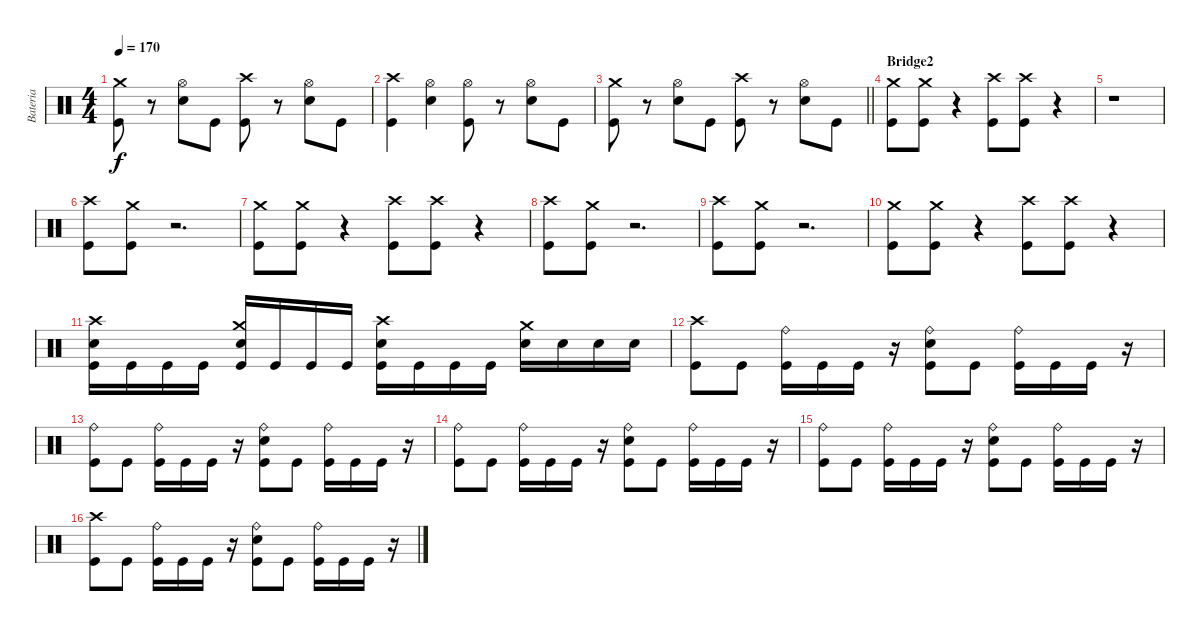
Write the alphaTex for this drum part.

\track ("Bateria" "Bateria") {instrument percussion}
\staff {score}
\articulation defaults
\ts (4 4)
\tempo 170
\clef neutral
\ks c
("Kick (hit)" "Crash medium (hit)").8{dy f} r.8 ("Snare (hit) 2" "Hi-Hat (open)").8 "Kick (hit)".8 ("Kick (hit)" "Crash high (hit)").8 r.8 ("Snare (hit) 2" "Hi-Hat (open)").8 "Kick (hit)".8 |
("Kick (hit)" "Crash high (hit)").4 ("Snare (hit) 2" "Hi-Hat (open)").4 ("Kick (hit)" "Hi-Hat (open)").8 r.8 ("Snare (hit) 2" "Hi-Hat (open)").8 "Kick (hit)".8 |
\barLineRight lightlight
("Kick (hit)" "Crash medium (hit)").8 r.8 ("Snare (hit) 2" "Hi-Hat (open)").8 "Kick (hit)".8 ("Kick (hit)" "Crash high (hit)").8 r.8 ("Snare (hit) 2" "Hi-Hat (open)").8 "Kick (hit)".8 |
\section ("" "Bridge2")
("Kick (hit)" "Crash medium (hit)").8 ("Kick (hit)" "Crash medium (hit)").8 r.4 ("Kick (hit)" "Crash high (hit)").8 ("Kick (hit)" "Crash high (hit)").8 r.4 |
r.1 |
("Kick (hit)" "Crash high (hit)").8 ("Kick (hit)" "Crash medium (hit)").8 r.2{d} |
("Kick (hit)" "Crash medium (hit)").8 ("Kick (hit)" "Crash medium (hit)").8 r.4 ("Kick (hit)" "Crash high (hit)").8 ("Kick (hit)" "Crash high (hit)").8 r.4 |
("Kick (hit)" "Crash high (hit)").8 ("Kick (hit)" "Crash medium (hit)").8 r.2{d} |
("Kick (hit)" "Crash high (hit)").8 ("Kick (hit)" "Crash medium (hit)").8 r.2{d} |
("Kick (hit)" "Crash medium (hit)").8 ("Kick (hit)" "Crash medium (hit)").8 r.4 ("Kick (hit)" "Crash high (hit)").8 ("Kick (hit)" "Crash high (hit)").8 r.4 |
("Snare (hit) 2" "Kick (hit)" "Crash high (hit)").16 "Kick (hit)".16 "Kick (hit)".16 "Kick (hit)".16 ("Snare (hit) 2" "Kick (hit)" "Crash medium (hit)").16 "Kick (hit)".16 "Kick (hit)".16 "Kick (hit)".16 ("Snare (hit) 2" "Kick (hit)" "Crash high (hit)").16 "Kick (hit)".16 "Kick (hit)".16 "Kick (hit)".16 ("Snare (hit) 2" "Crash medium (hit)").16 "Snare (hit) 2".16 "Snare (hit) 2".16 "Snare (hit) 2".16 |
("Kick (hit)" "Crash high (hit)").8 "Kick (hit)".8 ("Kick (hit)" "Ride (bell)").16 "Kick (hit)".16 "Kick (hit)".16 r.16 ("Snare (hit) 2" "Kick (hit)" "Ride (bell)").8 "Kick (hit)".8 ("Kick (hit)" "Ride (bell)").16 "Kick (hit)".16 "Kick (hit)".16 r.16 |
("Kick (hit)" "Ride (bell)").8 "Kick (hit)".8 ("Kick (hit)" "Ride (bell)").16 "Kick (hit)".16 "Kick (hit)".16 r.16 ("Snare (hit) 2" "Kick (hit)" "Ride (bell)").8 "Kick (hit)".8 ("Kick (hit)" "Ride (bell)").16 "Kick (hit)".16 "Kick (hit)".16 r.16 |
("Kick (hit)" "Ride (bell)").8 "Kick (hit)".8 ("Kick (hit)" "Ride (bell)").16 "Kick (hit)".16 "Kick (hit)".16 r.16 ("Snare (hit) 2" "Kick (hit)" "Ride (bell)").8 "Kick (hit)".8 ("Kick (hit)" "Ride (bell)").16 "Kick (hit)".16 "Kick (hit)".16 r.16 |
("Kick (hit)" "Ride (bell)").8 "Kick (hit)".8 ("Kick (hit)" "Ride (bell)").16 "Kick (hit)".16 "Kick (hit)".16 r.16 ("Snare (hit) 2" "Kick (hit)" "Ride (bell)").8 "Kick (hit)".8 ("Kick (hit)" "Ride (bell)").16 "Kick (hit)".16 "Kick (hit)".16 r.16 |
("Kick (hit)" "Crash high (hit)").8 "Kick (hit)".8 ("Kick (hit)" "Ride (bell)").16 "Kick (hit)".16 "Kick (hit)".16 r.16 ("Snare (hit) 2" "Kick (hit)" "Ride (bell)").8 "Kick (hit)".8 ("Kick (hit)" "Ride (bell)").16 "Kick (hit)".16 "Kick (hit)".16 r.16
